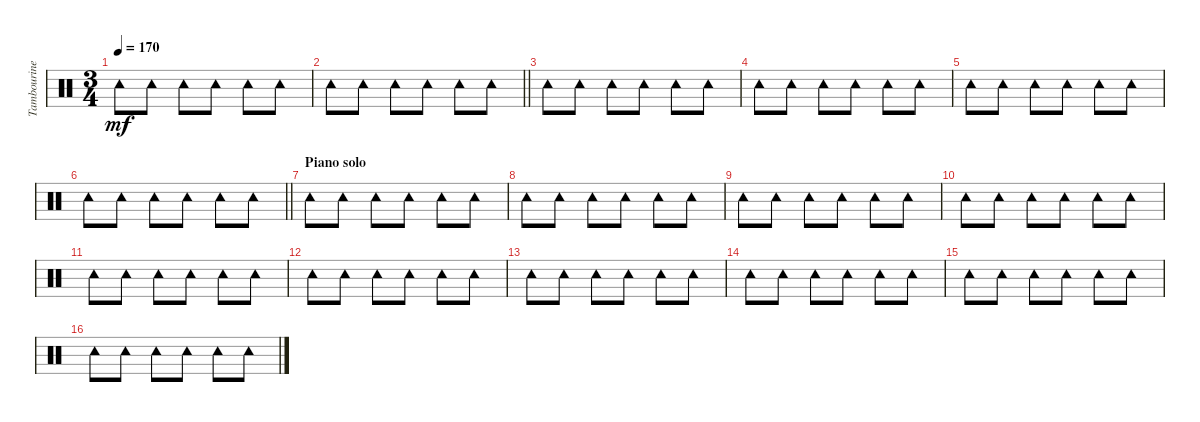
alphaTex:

\track ("Tambourine" "Tambourine") {instrument percussion}
\staff {score}
\articulation defaults
\ts (3 4)
\tempo 170
\clef neutral
\ks c "Tambourine (hit)".8{dy mf} "Tambourine (hit)".8 "Tambourine (hit)".8 "Tambourine (hit)".8 "Tambourine (hit)".8 "Tambourine (hit)".8
|
\barLineRight lightlight "Tambourine (hit)".8 "Tambourine (hit)".8 "Tambourine (hit)".8 "Tambourine (hit)".8 "Tambourine (hit)".8 "Tambourine (hit)".8
|
"Tambourine (hit)".8 "Tambourine (hit)".8 "Tambourine (hit)".8 "Tambourine (hit)".8 "Tambourine (hit)".8 "Tambourine (hit)".8 |
"Tambourine (hit)".8 "Tambourine (hit)".8 "Tambourine (hit)".8 "Tambourine (hit)".8 "Tambourine (hit)".8 "Tambourine (hit)".8 |
"Tambourine (hit)".8 "Tambourine (hit)".8 "Tambourine (hit)".8 "Tambourine (hit)".8 "Tambourine (hit)".8 "Tambourine (hit)".8 |
\barLineRight lightlight "Tambourine (hit)".8 "Tambourine (hit)".8 "Tambourine (hit)".8 "Tambourine (hit)".8 "Tambourine (hit)".8 "Tambourine (hit)".8
|
\section ("" "Piano solo")
"Tambourine (hit)".8 "Tambourine (hit)".8 "Tambourine (hit)".8 "Tambourine (hit)".8 "Tambourine (hit)".8 "Tambourine (hit)".8 |
"Tambourine (hit)".8 "Tambourine (hit)".8 "Tambourine (hit)".8 "Tambourine (hit)".8 "Tambourine (hit)".8 "Tambourine (hit)".8 |
"Tambourine (hit)".8 "Tambourine (hit)".8 "Tambourine (hit)".8 "Tambourine (hit)".8 "Tambourine (hit)".8 "Tambourine (hit)".8 |
"Tambourine (hit)".8 "Tambourine (hit)".8 "Tambourine (hit)".8 "Tambourine (hit)".8 "Tambourine (hit)".8 "Tambourine (hit)".8 |
"Tambourine (hit)".8 "Tambourine (hit)".8 "Tambourine (hit)".8 "Tambourine (hit)".8 "Tambourine (hit)".8 "Tambourine (hit)".8 |
"Tambourine (hit)".8 "Tambourine (hit)".8 "Tambourine (hit)".8 "Tambourine (hit)".8 "Tambourine (hit)".8 "Tambourine (hit)".8 |
"Tambourine (hit)".8 "Tambourine (hit)".8 "Tambourine (hit)".8 "Tambourine (hit)".8 "Tambourine (hit)".8 "Tambourine (hit)".8 |
"Tambourine (hit)".8 "Tambourine (hit)".8 "Tambourine (hit)".8 "Tambourine (hit)".8 "Tambourine (hit)".8 "Tambourine (hit)".8 |
"Tambourine (hit)".8 "Tambourine (hit)".8 "Tambourine (hit)".8 "Tambourine (hit)".8 "Tambourine (hit)".8 "Tambourine (hit)".8 |
"Tambourine (hit)".8 "Tambourine (hit)".8 "Tambourine (hit)".8 "Tambourine (hit)".8 "Tambourine (hit)".8 "Tambourine (hit)".8
